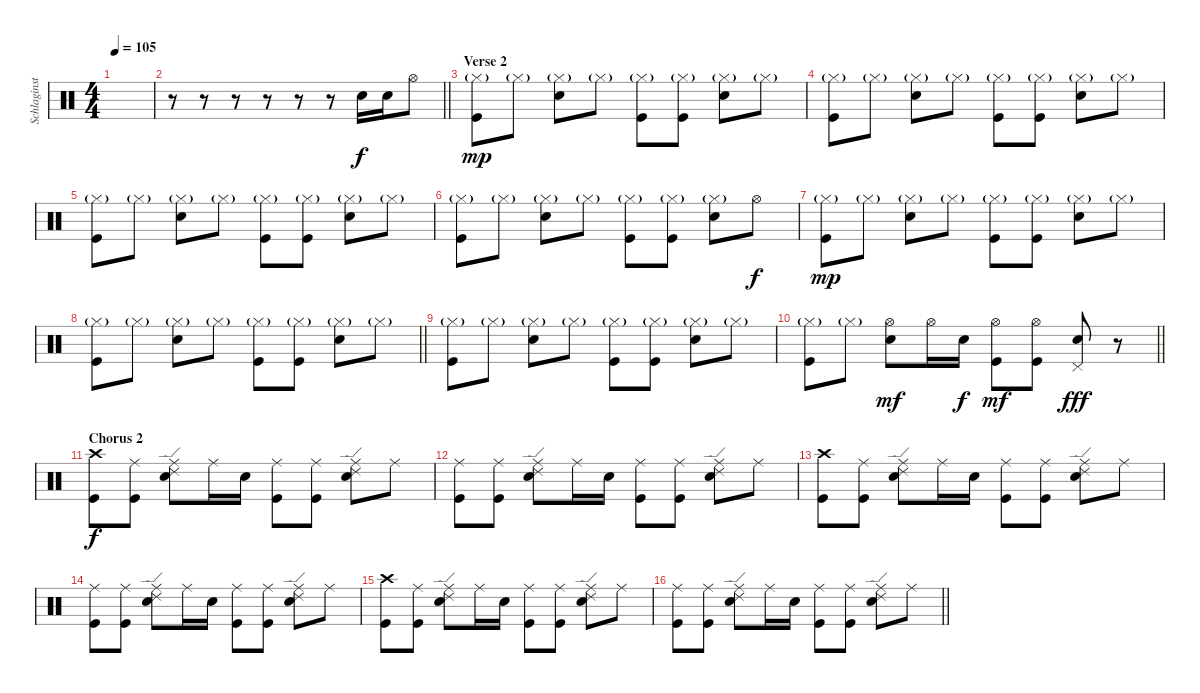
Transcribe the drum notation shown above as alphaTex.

\track ("Schlaginstrumente - Auswahl" "Schlaginst") {instrument percussion}
\staff {score}
\articulation defaults
\ts (4 4)
\tempo 105
\clef neutral
\ks c
|
\barLineRight lightlight
r.8 r.8 r.8 r.8 r.8 r.8 "Snare (hit) 2".16 "Snare (hit) 2".16 "Hi-Hat (open)".8 |
\section ("" "Verse 2")
("Hi-Hat (closed)"{g} "Kick (hit)").8{dy mp} "Hi-Hat (closed)"{g}.8 ("Hi-Hat (closed)"{g} "Snare (hit) 2").8 "Hi-Hat (closed)"{g}.8 ("Hi-Hat (closed)"{g} "Kick (hit)").8 ("Hi-Hat (closed)"{g} "Kick (hit)").8 ("Hi-Hat (closed)"{g} "Snare (hit) 2").8 "Hi-Hat (closed)"{g}.8 |
("Hi-Hat (closed)"{g} "Kick (hit)").8 "Hi-Hat (closed)"{g}.8 ("Hi-Hat (closed)"{g} "Snare (hit) 2").8 "Hi-Hat (closed)"{g}.8 ("Hi-Hat (closed)"{g} "Kick (hit)").8 ("Hi-Hat (closed)"{g} "Kick (hit)").8 ("Hi-Hat (closed)"{g} "Snare (hit) 2").8 "Hi-Hat (closed)"{g}.8 |
("Hi-Hat (closed)"{g} "Kick (hit)").8 "Hi-Hat (closed)"{g}.8 ("Hi-Hat (closed)"{g} "Snare (hit) 2").8 "Hi-Hat (closed)"{g}.8 ("Hi-Hat (closed)"{g} "Kick (hit)").8 ("Hi-Hat (closed)"{g} "Kick (hit)").8 ("Hi-Hat (closed)"{g} "Snare (hit) 2").8 "Hi-Hat (closed)"{g}.8 |
("Hi-Hat (closed)"{g} "Kick (hit)").8 "Hi-Hat (closed)"{g}.8 ("Hi-Hat (closed)"{g} "Snare (hit) 2").8 "Hi-Hat (closed)"{g}.8 ("Hi-Hat (closed)"{g} "Kick (hit)").8 ("Hi-Hat (closed)"{g} "Kick (hit)").8 ("Hi-Hat (closed)"{g} "Snare (hit) 2").8 "Hi-Hat (open)".8{dy f} |
("Hi-Hat (closed)"{g} "Kick (hit)").8{dy mp} "Hi-Hat (closed)"{g}.8 ("Hi-Hat (closed)"{g} "Snare (hit) 2").8 "Hi-Hat (closed)"{g}.8 ("Hi-Hat (closed)"{g} "Kick (hit)").8 ("Hi-Hat (closed)"{g} "Kick (hit)").8 ("Hi-Hat (closed)"{g} "Snare (hit) 2").8 "Hi-Hat (closed)"{g}.8 |
\barLineRight lightlight
("Hi-Hat (closed)"{g} "Kick (hit)").8 "Hi-Hat (closed)"{g}.8 ("Hi-Hat (closed)"{g} "Snare (hit) 2").8 "Hi-Hat (closed)"{g}.8 ("Hi-Hat (closed)"{g} "Kick (hit)").8 ("Hi-Hat (closed)"{g} "Kick (hit)").8 ("Hi-Hat (closed)"{g} "Snare (hit) 2").8 "Hi-Hat (closed)"{g}.8 |
("Hi-Hat (closed)"{g} "Kick (hit)").8 "Hi-Hat (closed)"{g}.8 ("Hi-Hat (closed)"{g} "Snare (hit) 2").8 "Hi-Hat (closed)"{g}.8 ("Hi-Hat (closed)"{g} "Kick (hit)").8 ("Hi-Hat (closed)"{g} "Kick (hit)").8 ("Hi-Hat (closed)"{g} "Snare (hit) 2").8 "Hi-Hat (closed)"{g}.8 |
\barLineRight lightlight
("Hi-Hat (closed)"{g} "Kick (hit)").8 "Hi-Hat (closed)"{g}.8 ("Hi-Hat (open)" "Snare (hit) 2").8{dy mf} "Hi-Hat (open)".16 "Snare (hit) 2".16{dy f} ("Hi-Hat (open)" "Kick (hit)").8{dy mf} ("Hi-Hat (open)" "Kick (hit)").8 ("Pedal Hi-Hat (hit)" "Snare (hit) 2").8{dy fff} r.8 |
\section ("" "Chorus 2")
("Crash high (hit)" "Kick (hit)").8{dy f} ("Ride (middle)" "Kick (hit)").8 ("Ride (middle)" "Ride (edge) 2" "Snare (hit) 2").8 "Ride (middle)".16 "Snare (hit) 2".16 ("Ride (middle)" "Kick (hit)").8 ("Ride (middle)" "Kick (hit)").8 ("Ride (middle)" "Ride (edge) 2" "Snare (hit) 2").8 "Ride (middle)".8 |
("Ride (middle)" "Kick (hit)").8 ("Ride (middle)" "Kick (hit)").8 ("Ride (middle)" "Ride (edge) 2" "Snare (hit) 2").8 "Ride (middle)".16 "Snare (hit) 2".16 ("Ride (middle)" "Kick (hit)").8 ("Ride (middle)" "Kick (hit)").8 ("Ride (middle)" "Ride (edge) 2" "Snare (hit) 2").8 "Ride (middle)".8 |
("Crash high (hit)" "Kick (hit)").8 ("Ride (middle)" "Kick (hit)").8 ("Ride (middle)" "Ride (edge) 2" "Snare (hit) 2").8 "Ride (middle)".16 "Snare (hit) 2".16 ("Ride (middle)" "Kick (hit)").8 ("Ride (middle)" "Kick (hit)").8 ("Ride (middle)" "Ride (edge) 2" "Snare (hit) 2").8 "Ride (middle)".8 |
("Ride (middle)" "Kick (hit)").8 ("Ride (middle)" "Kick (hit)").8 ("Ride (middle)" "Ride (edge) 2" "Snare (hit) 2").8 "Ride (middle)".16 "Snare (hit) 2".16 ("Ride (middle)" "Kick (hit)").8 ("Ride (middle)" "Kick (hit)").8 ("Ride (middle)" "Ride (edge) 2" "Snare (hit) 2").8 "Ride (middle)".8 |
("Crash high (hit)" "Kick (hit)").8 ("Ride (middle)" "Kick (hit)").8 ("Ride (middle)" "Ride (edge) 2" "Snare (hit) 2").8 "Ride (middle)".16 "Snare (hit) 2".16 ("Ride (middle)" "Kick (hit)").8 ("Ride (middle)" "Kick (hit)").8 ("Ride (middle)" "Ride (edge) 2" "Snare (hit) 2").8 "Ride (middle)".8 |
\barLineRight lightlight
("Ride (middle)" "Kick (hit)").8 ("Ride (middle)" "Kick (hit)").8 ("Ride (middle)" "Ride (edge) 2" "Snare (hit) 2").8 "Ride (middle)".16 "Snare (hit) 2".16 ("Ride (middle)" "Kick (hit)").8 ("Ride (middle)" "Kick (hit)").8 ("Ride (middle)" "Ride (edge) 2" "Snare (hit) 2").8 "Ride (middle)".8
